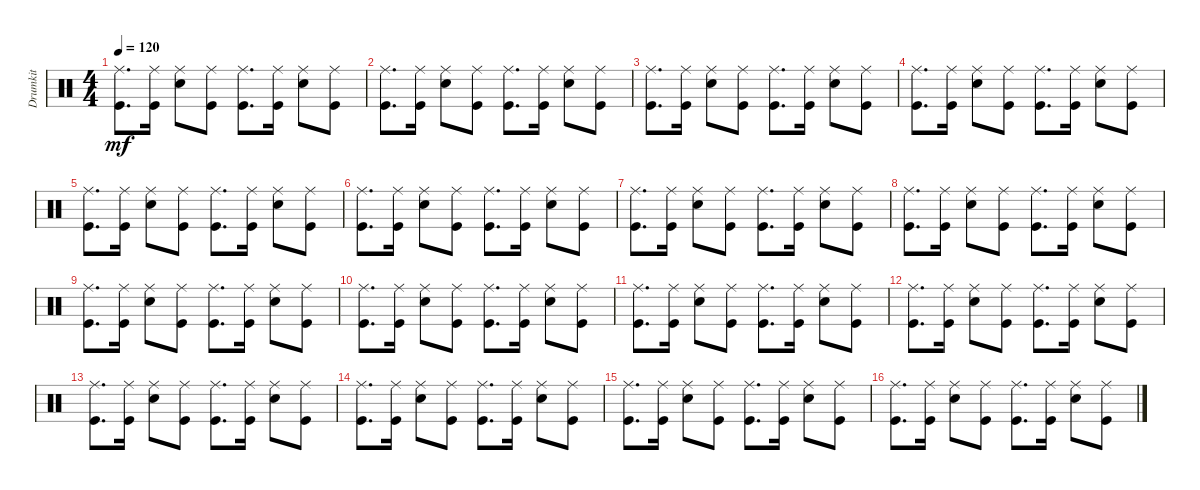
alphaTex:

\track ("Drumkit" "Drumkit") {instrument percussion}
\staff {score}
\articulation defaults
\ts (4 4)
\tempo 120
\clef neutral
\ks c
("Kick (hit)" "Ride (middle)").8{d dy mf} ("Kick (hit)" "Ride (middle)").16 ("Snare (hit) 2" "Ride (middle)").8 ("Kick (hit)" "Ride (middle)").8 ("Kick (hit)" "Ride (middle)").8{d} ("Kick (hit)" "Ride (middle)").16 ("Snare (hit) 2" "Ride (middle)").8 ("Kick (hit)" "Ride (middle)").8 |
("Kick (hit)" "Ride (middle)").8{d} ("Kick (hit)" "Ride (middle)").16 ("Snare (hit) 2" "Ride (middle)").8 ("Kick (hit)" "Ride (middle)").8 ("Kick (hit)" "Ride (middle)").8{d} ("Kick (hit)" "Ride (middle)").16 ("Snare (hit) 2" "Ride (middle)").8 ("Kick (hit)" "Ride (middle)").8 |
("Kick (hit)" "Ride (middle)").8{d} ("Kick (hit)" "Ride (middle)").16 ("Snare (hit) 2" "Ride (middle)").8 ("Kick (hit)" "Ride (middle)").8 ("Kick (hit)" "Ride (middle)").8{d} ("Kick (hit)" "Ride (middle)").16 ("Snare (hit) 2" "Ride (middle)").8 ("Kick (hit)" "Ride (middle)").8 |
("Kick (hit)" "Ride (middle)").8{d} ("Kick (hit)" "Ride (middle)").16 ("Snare (hit) 2" "Ride (middle)").8 ("Kick (hit)" "Ride (middle)").8 ("Kick (hit)" "Ride (middle)").8{d} ("Kick (hit)" "Ride (middle)").16 ("Snare (hit) 2" "Ride (middle)").8 ("Kick (hit)" "Ride (middle)").8 |
("Kick (hit)" "Ride (middle)").8{d} ("Kick (hit)" "Ride (middle)").16 ("Snare (hit) 2" "Ride (middle)").8 ("Kick (hit)" "Ride (middle)").8 ("Kick (hit)" "Ride (middle)").8{d} ("Kick (hit)" "Ride (middle)").16 ("Snare (hit) 2" "Ride (middle)").8 ("Kick (hit)" "Ride (middle)").8 |
("Kick (hit)" "Ride (middle)").8{d} ("Kick (hit)" "Ride (middle)").16 ("Snare (hit) 2" "Ride (middle)").8 ("Kick (hit)" "Ride (middle)").8 ("Kick (hit)" "Ride (middle)").8{d} ("Kick (hit)" "Ride (middle)").16 ("Snare (hit) 2" "Ride (middle)").8 ("Kick (hit)" "Ride (middle)").8 |
("Kick (hit)" "Ride (middle)").8{d} ("Kick (hit)" "Ride (middle)").16 ("Snare (hit) 2" "Ride (middle)").8 ("Kick (hit)" "Ride (middle)").8 ("Kick (hit)" "Ride (middle)").8{d} ("Kick (hit)" "Ride (middle)").16 ("Snare (hit) 2" "Ride (middle)").8 ("Kick (hit)" "Ride (middle)").8 |
("Kick (hit)" "Ride (middle)").8{d} ("Kick (hit)" "Ride (middle)").16 ("Snare (hit) 2" "Ride (middle)").8 ("Kick (hit)" "Ride (middle)").8 ("Kick (hit)" "Ride (middle)").8{d} ("Kick (hit)" "Ride (middle)").16 ("Snare (hit) 2" "Ride (middle)").8 ("Kick (hit)" "Ride (middle)").8 |
("Kick (hit)" "Ride (middle)").8{d} ("Kick (hit)" "Ride (middle)").16 ("Snare (hit) 2" "Ride (middle)").8 ("Kick (hit)" "Ride (middle)").8 ("Kick (hit)" "Ride (middle)").8{d} ("Kick (hit)" "Ride (middle)").16 ("Snare (hit) 2" "Ride (middle)").8 ("Kick (hit)" "Ride (middle)").8 |
("Kick (hit)" "Ride (middle)").8{d} ("Kick (hit)" "Ride (middle)").16 ("Snare (hit) 2" "Ride (middle)").8 ("Kick (hit)" "Ride (middle)").8 ("Kick (hit)" "Ride (middle)").8{d} ("Kick (hit)" "Ride (middle)").16 ("Snare (hit) 2" "Ride (middle)").8 ("Kick (hit)" "Ride (middle)").8 |
("Kick (hit)" "Ride (middle)").8{d} ("Kick (hit)" "Ride (middle)").16 ("Snare (hit) 2" "Ride (middle)").8 ("Kick (hit)" "Ride (middle)").8 ("Kick (hit)" "Ride (middle)").8{d} ("Kick (hit)" "Ride (middle)").16 ("Snare (hit) 2" "Ride (middle)").8 ("Kick (hit)" "Ride (middle)").8 |
("Kick (hit)" "Ride (middle)").8{d} ("Kick (hit)" "Ride (middle)").16 ("Snare (hit) 2" "Ride (middle)").8 ("Kick (hit)" "Ride (middle)").8 ("Kick (hit)" "Ride (middle)").8{d} ("Kick (hit)" "Ride (middle)").16 ("Snare (hit) 2" "Ride (middle)").8 ("Kick (hit)" "Ride (middle)").8 |
("Kick (hit)" "Ride (middle)").8{d} ("Kick (hit)" "Ride (middle)").16 ("Snare (hit) 2" "Ride (middle)").8 ("Kick (hit)" "Ride (middle)").8 ("Kick (hit)" "Ride (middle)").8{d} ("Kick (hit)" "Ride (middle)").16 ("Snare (hit) 2" "Ride (middle)").8 ("Kick (hit)" "Ride (middle)").8 |
("Kick (hit)" "Ride (middle)").8{d} ("Kick (hit)" "Ride (middle)").16 ("Snare (hit) 2" "Ride (middle)").8 ("Kick (hit)" "Ride (middle)").8 ("Kick (hit)" "Ride (middle)").8{d} ("Kick (hit)" "Ride (middle)").16 ("Snare (hit) 2" "Ride (middle)").8 ("Kick (hit)" "Ride (middle)").8 |
("Kick (hit)" "Ride (middle)").8{d} ("Kick (hit)" "Ride (middle)").16 ("Snare (hit) 2" "Ride (middle)").8 ("Kick (hit)" "Ride (middle)").8 ("Kick (hit)" "Ride (middle)").8{d} ("Kick (hit)" "Ride (middle)").16 ("Snare (hit) 2" "Ride (middle)").8 ("Kick (hit)" "Ride (middle)").8 |
("Kick (hit)" "Ride (middle)").8{d} ("Kick (hit)" "Ride (middle)").16 ("Snare (hit) 2" "Ride (middle)").8 ("Kick (hit)" "Ride (middle)").8 ("Kick (hit)" "Ride (middle)").8{d} ("Kick (hit)" "Ride (middle)").16 ("Snare (hit) 2" "Ride (middle)").8 ("Kick (hit)" "Ride (middle)").8
